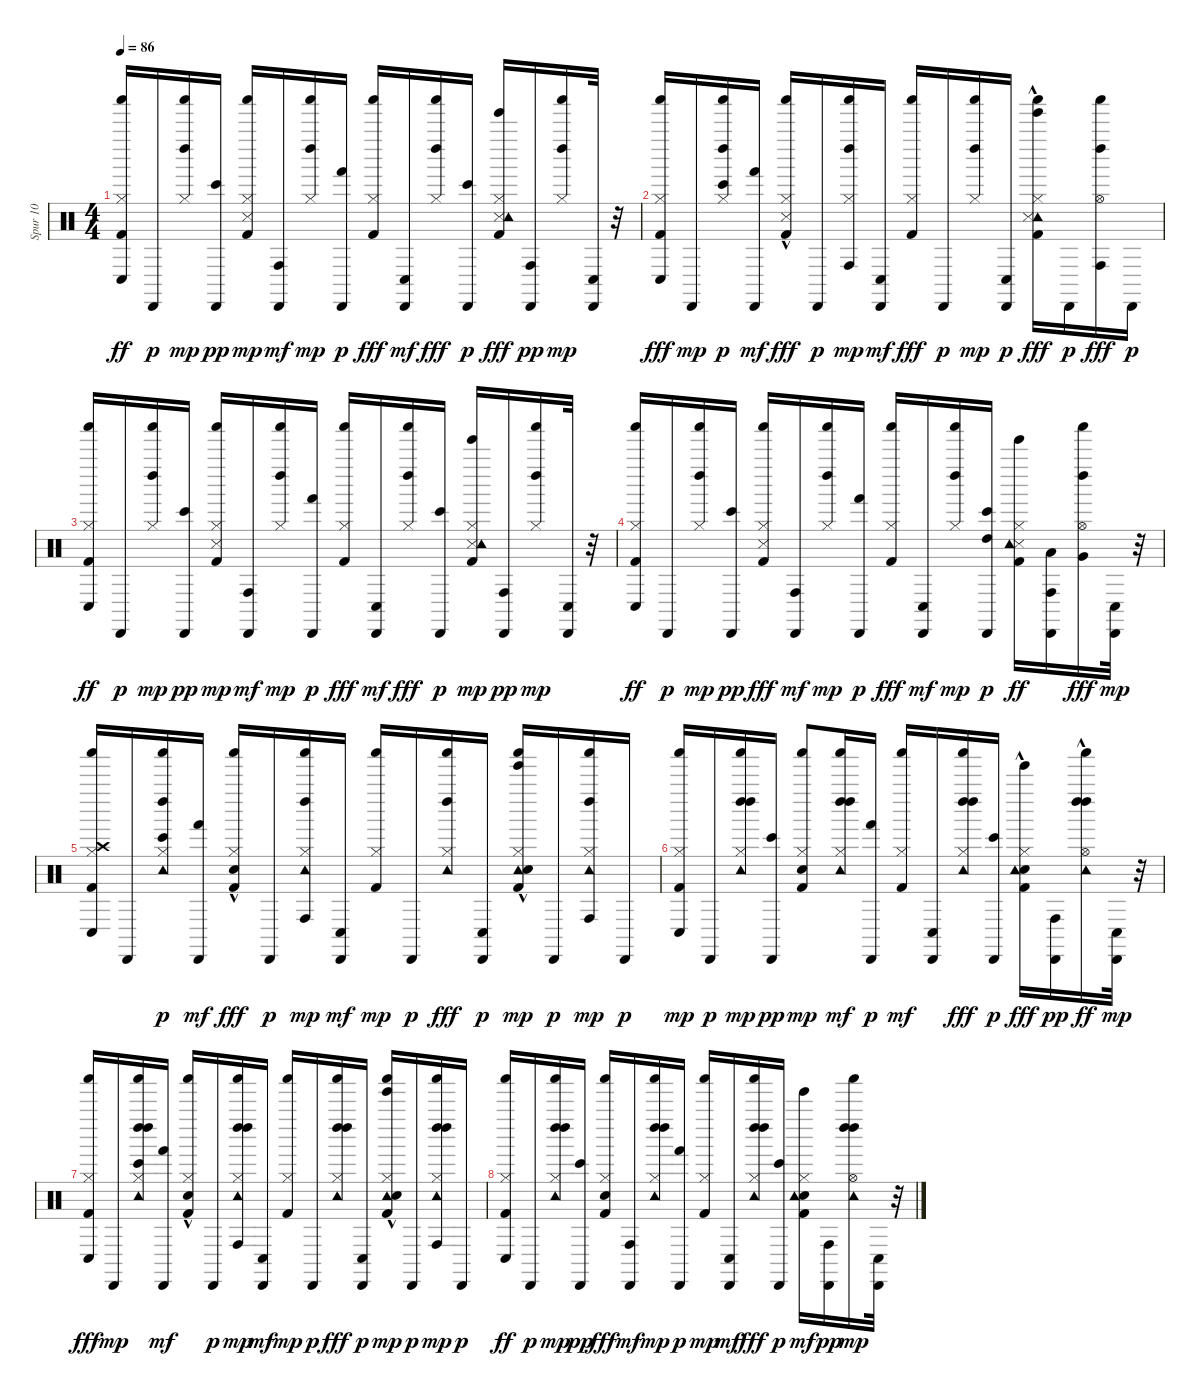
\track ("Spur 10" "Spur 10") {instrument percussion}
\staff {score}
\articulation defaults
\ts (4 4)
\tempo 86
\clef neutral
\ks c
("Hi-Hat (closed)" "Shaker (hit)" "Kick (hit) 2" "Conga low (hit)").16{dy ff} "Cabasa (hit)".16{dy p} ("Shaker (hit)" "Hi-Hat (closed)" "Left Maraca (hit)").16{dy mp} ("Bongo High (hit)" "Cabasa (hit)").16{dy pp} ("Shaker (hit)" "Kick (hit) 2" "Snare (side stick) 3" "Hi-Hat (closed)").16{dy mp} ("Cabasa (hit)" "Conga high (hit)").16{dy mf} ("Shaker (hit)" "Hi-Hat (closed)" "Left Maraca (hit)").16{dy mp} ("Hand (hit)" "Cabasa (hit)").16{dy p} ("Hi-Hat (closed)" "Shaker (hit)" "Kick (hit) 2").16{dy fff} ("Cabasa (hit)" "Conga low (hit)").16{dy mf} ("Hi-Hat (closed)" "Shaker (hit)" "Left Maraca (hit)").16{dy fff} ("Bongo High (hit)" "Cabasa (hit)").16{dy p} ("Hi-Hat (closed)" "Tinkle Bell (hit)" "Kick (hit) 2" "Snare (side stick) 3" "Tambourine (hit)").16{dy fff} ("Conga high (hit)" "Cabasa (hit)").16{dy pp} ("Hi-Hat (closed)" "Shaker (hit)" "Left Maraca (hit)").16{dy mp} ("Conga low (hit)" "Cabasa (hit)").32 r.32 |
("Hi-Hat (closed)" "Kick (hit) 2" "Shaker (hit)" "Conga low (hit)").16{dy fff} "Cabasa (hit)".16{dy mp} ("Hi-Hat (closed)" "Shaker (hit)" "Bongo High (hit)" "Left Maraca (hit)").16{dy p} ("Cabasa (hit)" "Hand (hit)").16{dy mf} ("Hi-Hat (closed)" "Snare (side stick) 3"{hac} "Shaker (hit)" "Kick (hit) 2").16{dy fff} "Cabasa (hit)".16{dy p} ("Hi-Hat (closed)" "Conga high (hit)" "Shaker (hit)" "Left Maraca (hit)").16{dy mp} ("Cabasa (hit)" "Conga low (hit)").16{dy mf} ("Hi-Hat (closed)" "Shaker (hit)" "Kick (hit) 2").16{dy fff} "Cabasa (hit)".16{dy p} ("Hi-Hat (closed)" "Shaker (hit)" "Left Maraca (hit)").16{dy mp} ("Cabasa (hit)" "Conga low (hit)").16{dy p} ("Hi-Hat (closed)" "Tinkle Bell (hit)"{hac} "Tambourine (hit)"{hac} "Shaker (hit)" "Kick (hit) 2" "Snare (side stick) 3"{hac}).16{dy fff} "Cabasa (hit)".16{dy p} ("Hi-Hat (open)" "Shaker (hit)" "Conga high (hit)" "Left Maraca (hit)").16{dy fff} "Cabasa (hit)".16{dy p} |
("Hi-Hat (closed)" "Shaker (hit)" "Kick (hit) 2" "Conga low (hit)").16{dy ff} "Cabasa (hit)".16{dy p} ("Shaker (hit)" "Hi-Hat (closed)" "Left Maraca (hit)").16{dy mp} ("Bongo High (hit)" "Cabasa (hit)").16{dy pp} ("Shaker (hit)" "Kick (hit) 2" "Snare (side stick) 3" "Hi-Hat (closed)").16{dy mp} ("Cabasa (hit)" "Conga high (hit)").16{dy mf} ("Shaker (hit)" "Hi-Hat (closed)" "Left Maraca (hit)").16{dy mp} ("Hand (hit)" "Cabasa (hit)").16{dy p} ("Hi-Hat (closed)" "Shaker (hit)" "Kick (hit) 2").16{dy fff} ("Cabasa (hit)" "Conga low (hit)").16{dy mf} ("Shaker (hit)" "Hi-Hat (closed)" "Left Maraca (hit)").16{dy fff} ("Bongo High (hit)" "Cabasa (hit)").16{dy p} ("Snare (side stick) 3" "Kick (hit) 2" "Tambourine (hit)" "Tinkle Bell (hit)" "Hi-Hat (closed)").16{dy mp} ("Conga high (hit)" "Cabasa (hit)").16{dy pp} ("Shaker (hit)" "Hi-Hat (closed)" "Left Maraca (hit)").16{dy mp} ("Conga low (hit)" "Cabasa (hit)").32 r.32 |
("Hi-Hat (closed)" "Shaker (hit)" "Kick (hit) 2" "Conga low (hit)").16{dy ff} "Cabasa (hit)".16{dy p} ("Hi-Hat (closed)" "Shaker (hit)" "Left Maraca (hit)").16{dy mp} ("Bongo High (hit)" "Cabasa (hit)").16{dy pp} ("Hi-Hat (closed)" "Shaker (hit)" "Kick (hit) 2" "Snare (side stick) 3").16{dy fff} ("Cabasa (hit)" "Conga high (hit)").16{dy mf} ("Shaker (hit)" "Hi-Hat (closed)" "Left Maraca (hit)").16{dy mp} ("Hand (hit)" "Cabasa (hit)").16{dy p} ("Hi-Hat (closed)" "Shaker (hit)" "Kick (hit) 2").16{dy fff} ("Cabasa (hit)" "Conga low (hit)").16{dy mf} ("Shaker (hit)" "Hi-Hat (closed)" "Left Maraca (hit)").16{dy mp} ("High Tom (hit)" "Bongo High (hit)" "Cabasa (hit)").16{dy p} ("Kick (hit) 2" "Snare (side stick) 3" "Tambourine (hit)" "Tinkle Bell (hit)" "Hi-Hat (closed)").16{dy ff} ("Conga high (hit)" "Cabasa (hit)" "Low Tom (hit)").16 ("Hi-Hat (open)" "Shaker (hit)" "Very Low Tom (hit)" "Left Maraca (hit)").16{dy fff} ("Conga low (hit)" "Cabasa (hit)").32{dy mp} r.32 |
("Crash high (hit)" "Kick (hit) 2" "Shaker (hit)" "Conga low (hit)" "Hi-Hat (closed)").16 "Cabasa (hit)".16 ("Hi-Hat (closed)" "Shaker (hit)" "Bongo High (hit)" "Tambourine (hit)" "Left Maraca (hit)").16{dy p} ("Cabasa (hit)" "Hand (hit)").16{dy mf} ("Hi-Hat (closed)" "Snare (hit) 2"{hac} "Shaker (hit)" "Kick (hit) 2").16{dy fff} "Cabasa (hit)".16{dy p} ("Hi-Hat (closed)" "Conga high (hit)" "Shaker (hit)" "Tambourine (hit)" "Left Maraca (hit)").16{dy mp} ("Cabasa (hit)" "Conga low (hit)").16{dy mf} ("Shaker (hit)" "Kick (hit) 2" "Hi-Hat (closed)").16{dy mp} "Cabasa (hit)".16{dy p} ("Shaker (hit)" "Hi-Hat (closed)" "Tambourine (hit)" "Left Maraca (hit)").16{dy fff} ("Cabasa (hit)" "Conga low (hit)").16{dy p} ("Tinkle Bell (hit)" "Tambourine (hit)"{hac} "Shaker (hit)" "Kick (hit) 2" "Snare (hit) 2"{hac} "Hi-Hat (closed)").16{dy mp} "Cabasa (hit)".16{dy p} ("Shaker (hit)" "Conga high (hit)" "Hi-Hat (closed)" "Tambourine (hit)" "Left Maraca (hit)").16{dy mp} "Cabasa (hit)".16{dy p} |
("Shaker (hit)" "Kick (hit) 2" "Conga low (hit)" "Hi-Hat (closed)").16{dy mp} "Cabasa (hit)".16{dy p} ("Shaker (hit)" "Hi-Hat (closed)" "Left Maraca (hit)" "Tambourine (hit)" "Left Maraca (hit)").16{dy mp} ("Bongo High (hit)" "Cabasa (hit)").16{dy pp} ("Shaker (hit)" "Kick (hit) 2" "Snare (hit) 2" "Hi-Hat (closed)").8{dy mp} ("Shaker (hit)" "Hi-Hat (closed)" "Left Maraca (hit)" "Tambourine (hit)" "Left Maraca (hit)").16{dy mf} ("Hand (hit)" "Cabasa (hit)").16{dy p} ("Shaker (hit)" "Kick (hit) 2" "Hi-Hat (closed)").16{dy mf} ("Cabasa (hit)" "Conga low (hit)").16 ("Shaker (hit)" "Hi-Hat (closed)" "Left Maraca (hit)" "Tambourine (hit)" "Left Maraca (hit)").16{dy fff} ("Bongo High (hit)" "Cabasa (hit)").16{dy p} ("Kick (hit) 2" "Tinkle Bell (hit)"{hac} "Snare (hit) 2" "Tambourine (hit)" "Hi-Hat (closed)").16{dy fff} ("Conga high (hit)" "Cabasa (hit)").16{dy pp} ("Shaker (hit)" "Hi-Hat (open)"{hac} "Left Maraca (hit)" "Tambourine (hit)" "Left Maraca (hit)").16{dy ff} ("Conga low (hit)" "Cabasa (hit)").32{dy mp} r.32 |
("Hi-Hat (closed)" "Kick (hit) 2" "Shaker (hit)" "Conga low (hit)").16{dy fff} "Cabasa (hit)".16{dy mp} ("Shaker (hit)" "Bongo High (hit)" "Hi-Hat (closed)" "Tambourine (hit)" "Left Maraca (hit)" "Left Maraca (hit)").16 ("Cabasa (hit)" "Hand (hit)").16{dy mf} ("Snare (hit) 2"{hac} "Shaker (hit)" "Kick (hit) 2" "Hi-Hat (closed)").16 "Cabasa (hit)".16{dy p} ("Hi-Hat (closed)" "Conga high (hit)" "Shaker (hit)" "Tambourine (hit)" "Left Maraca (hit)" "Left Maraca (hit)").16{dy mp} ("Cabasa (hit)" "Conga low (hit)").16{dy mf} ("Shaker (hit)" "Kick (hit) 2" "Hi-Hat (closed)").16{dy mp} "Cabasa (hit)".16{dy p} ("Shaker (hit)" "Hi-Hat (closed)" "Tambourine (hit)" "Left Maraca (hit)" "Left Maraca (hit)").16{dy fff} ("Cabasa (hit)" "Conga low (hit)").16{dy p} ("Tinkle Bell (hit)"{hac} "Tambourine (hit)"{hac} "Shaker (hit)" "Kick (hit) 2" "Snare (hit) 2"{hac} "Hi-Hat (closed)").16{dy mp} "Cabasa (hit)".16{dy p} ("Shaker (hit)" "Conga high (hit)" "Hi-Hat (closed)" "Tambourine (hit)" "Left Maraca (hit)" "Left Maraca (hit)").16{dy mp} "Cabasa (hit)".16{dy p} |
("Hi-Hat (closed)" "Shaker (hit)" "Kick (hit) 2" "Conga low (hit)").16{dy ff} "Cabasa (hit)".16{dy p} ("Hi-Hat (closed)" "Shaker (hit)" "Left Maraca (hit)" "Tambourine (hit)" "Left Maraca (hit)").16{dy mp} ("Bongo High (hit)" "Cabasa (hit)").16{dy pp} ("Hi-Hat (closed)" "Shaker (hit)" "Kick (hit) 2" "Snare (hit) 2").16{dy fff} ("Cabasa (hit)" "Conga high (hit)").16{dy mf} ("Hi-Hat (closed)" "Shaker (hit)" "Left Maraca (hit)" "Tambourine (hit)" "Left Maraca (hit)").16{dy mp} ("Hand (hit)" "Cabasa (hit)").16{dy p} ("Shaker (hit)" "Kick (hit) 2" "Hi-Hat (closed)").16{dy mp} ("Cabasa (hit)" "Conga low (hit)").16{dy mf} ("Hi-Hat (closed)" "Shaker (hit)" "Left Maraca (hit)" "Tambourine (hit)" "Left Maraca (hit)").16{dy fff} ("Bongo High (hit)" "Cabasa (hit)").16{dy p} ("Kick (hit) 2" "Tinkle Bell (hit)" "Snare (hit) 2" "Tambourine (hit)" "Hi-Hat (closed)").16{dy mf} ("Conga high (hit)" "Cabasa (hit)").16{dy pp} ("Hi-Hat (open)" "Shaker (hit)" "Left Maraca (hit)" "Tambourine (hit)" "Left Maraca (hit)").16{dy mp} ("Conga low (hit)" "Cabasa (hit)").32 r.32
